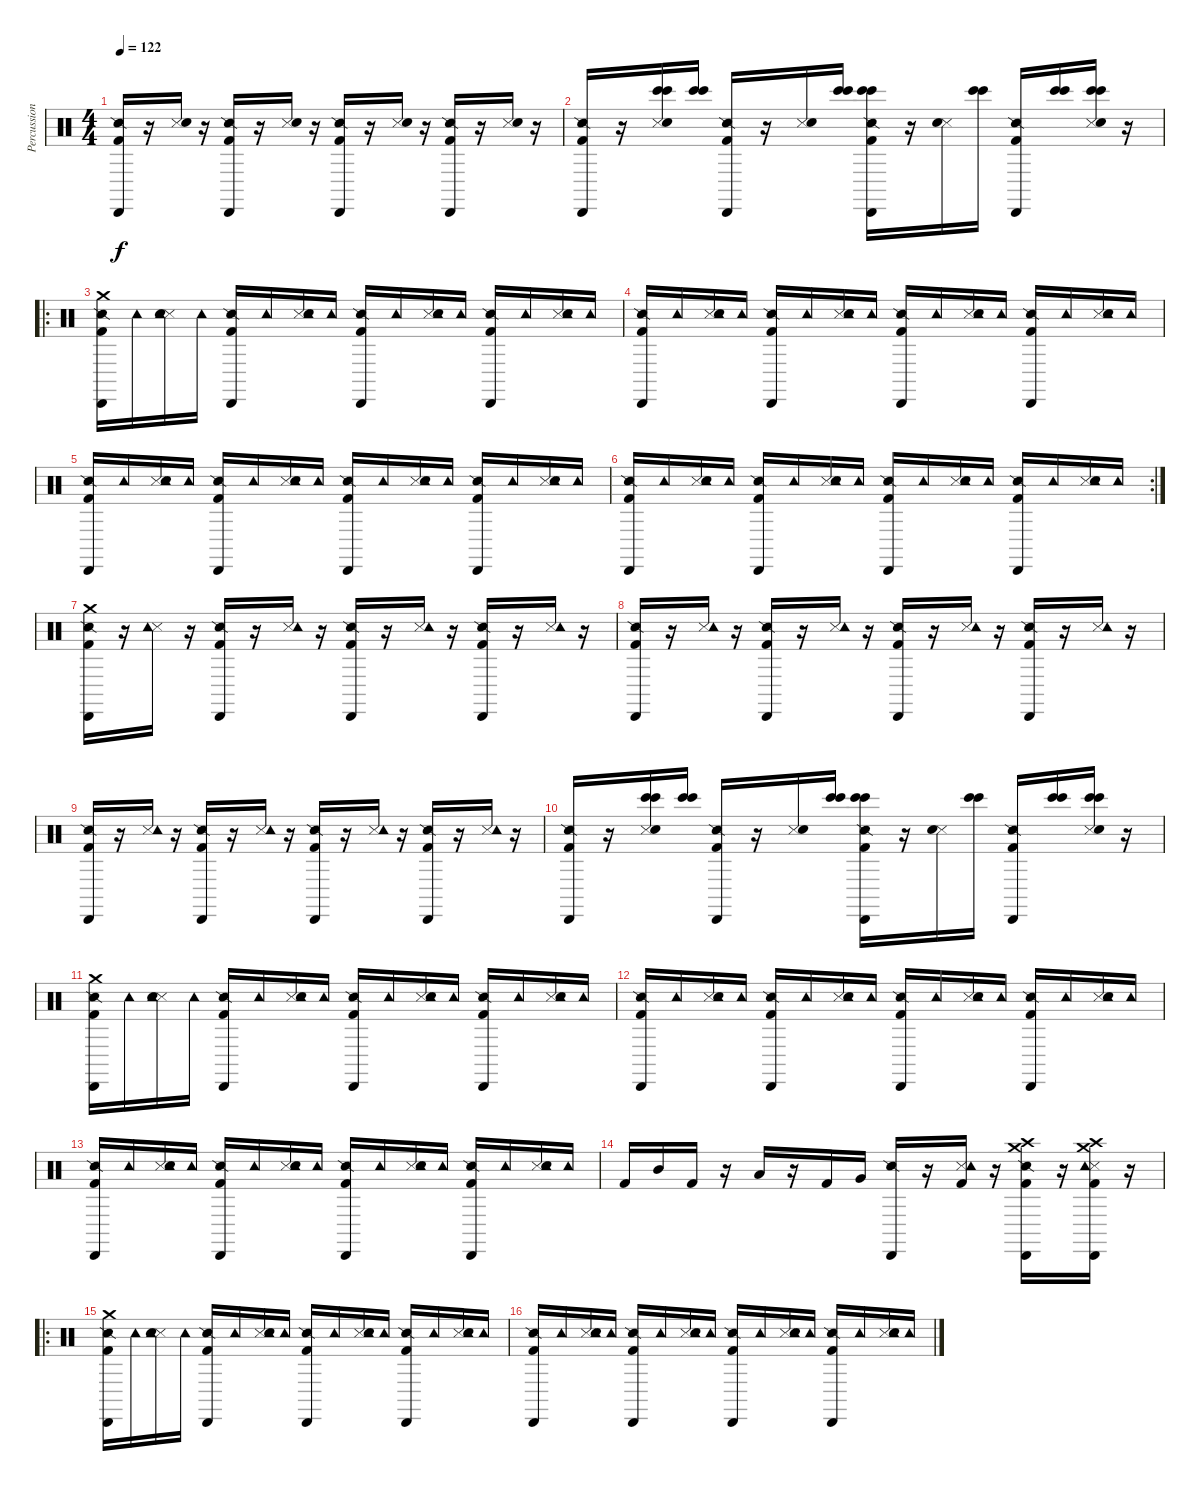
\track ("Percussion" "Percussion") {instrument percussion}
\staff {score}
\articulation defaults
\ts (4 4)
\tempo 122
\clef neutral
\ks c
("Snare (side stick) 2" "Kick (hit) 2" "Cabasa (hit)").16{dy f} r.16 ("Snare (side stick) 3" "Snare (hit) 2").16 r.16 ("Snare (side stick) 2" "Kick (hit) 2" "Cabasa (hit)").16 r.16 ("Snare (side stick) 3" "Snare (hit) 2").16 r.16 ("Snare (side stick) 2" "Kick (hit) 2" "Cabasa (hit)").16 r.16 ("Snare (side stick) 3" "Snare (hit) 2").16 r.16 ("Snare (side stick) 2" "Kick (hit) 2" "Cabasa (hit)").16 r.16 ("Snare (side stick) 3" "Snare (hit) 2").16 r.16 |
("Snare (side stick) 2" "Kick (hit) 2" "Cabasa (hit)").16 r.16 ("Snare (side stick) 3" "Bongo High (hit)" "Bongo High (hit)" "Snare (hit) 2").16 ("Bongo High (hit)" "Bongo High (hit)").16 ("Snare (side stick) 2" "Kick (hit) 2" "Cabasa (hit)").16 r.16 ("Snare (side stick) 3" "Snare (hit) 2").16 ("Bongo High (hit)" "Bongo High (hit)").16 ("Snare (side stick) 2" "Bongo High (hit)" "Bongo High (hit)" "Kick (hit) 2" "Cabasa (hit)").16 r.16 ("Snare (side stick) 3" "Snare (hit) 2").16 ("Bongo High (hit)" "Bongo High (hit)").16 ("Snare (side stick) 2" "Kick (hit) 2" "Cabasa (hit)").16 ("Bongo High (hit)" "Bongo High (hit)").16 ("Snare (side stick) 3" "Bongo High (hit)" "Bongo High (hit)" "Snare (hit) 2").16 r.16 |
\ro
("Snare (side stick) 2" "Crash medium (hit)" "Kick (hit) 2" "Cabasa (hit)").16 "Tambourine (hit)".16 ("Snare (side stick) 3" "Snare (hit) 2" "Tambourine (hit)").16 "Tambourine (hit)".16 ("Snare (side stick) 2" "Kick (hit) 2" "Cabasa (hit)").16 "Tambourine (hit)".16 ("Snare (side stick) 3" "Snare (hit) 2" "Tambourine (hit)").16 "Tambourine (hit)".16 ("Snare (side stick) 2" "Kick (hit) 2" "Cabasa (hit)").16 "Tambourine (hit)".16 ("Snare (side stick) 3" "Snare (hit) 2" "Tambourine (hit)").16 "Tambourine (hit)".16 ("Snare (side stick) 2" "Kick (hit) 2" "Cabasa (hit)").16 "Tambourine (hit)".16 ("Snare (side stick) 3" "Snare (hit) 2" "Tambourine (hit)").16 "Tambourine (hit)".16 |
("Snare (side stick) 2" "Kick (hit) 2" "Cabasa (hit)").16 "Tambourine (hit)".16 ("Snare (side stick) 3" "Snare (hit) 2" "Tambourine (hit)").16 "Tambourine (hit)".16 ("Snare (side stick) 2" "Kick (hit) 2" "Cabasa (hit)").16 "Tambourine (hit)".16 ("Snare (side stick) 3" "Snare (hit) 2" "Tambourine (hit)").16 "Tambourine (hit)".16 ("Snare (side stick) 2" "Kick (hit) 2" "Cabasa (hit)").16 "Tambourine (hit)".16 ("Snare (side stick) 3" "Snare (hit) 2" "Tambourine (hit)").16 "Tambourine (hit)".16 ("Snare (side stick) 2" "Kick (hit) 2" "Cabasa (hit)").16 "Tambourine (hit)".16 ("Snare (side stick) 3" "Snare (hit) 2" "Tambourine (hit)").16 "Tambourine (hit)".16 |
("Snare (side stick) 2" "Kick (hit) 2" "Cabasa (hit)").16 "Tambourine (hit)".16 ("Snare (side stick) 3" "Snare (hit) 2" "Tambourine (hit)").16 "Tambourine (hit)".16 ("Snare (side stick) 2" "Kick (hit) 2" "Cabasa (hit)").16 "Tambourine (hit)".16 ("Snare (side stick) 3" "Snare (hit) 2" "Tambourine (hit)").16 "Tambourine (hit)".16 ("Snare (side stick) 2" "Kick (hit) 2" "Cabasa (hit)").16 "Tambourine (hit)".16 ("Snare (side stick) 3" "Snare (hit) 2" "Tambourine (hit)").16 "Tambourine (hit)".16 ("Snare (side stick) 2" "Kick (hit) 2" "Cabasa (hit)").16 "Tambourine (hit)".16 ("Snare (side stick) 3" "Snare (hit) 2" "Tambourine (hit)").16 "Tambourine (hit)".16 |
\rc 2
("Snare (side stick) 2" "Kick (hit) 2" "Cabasa (hit)").16 "Tambourine (hit)".16 ("Snare (side stick) 3" "Snare (hit) 2" "Tambourine (hit)").16 "Tambourine (hit)".16 ("Snare (side stick) 2" "Kick (hit) 2" "Cabasa (hit)").16 "Tambourine (hit)".16 ("Snare (side stick) 3" "Snare (hit) 2" "Tambourine (hit)").16 "Tambourine (hit)".16 ("Snare (side stick) 2" "Kick (hit) 2" "Cabasa (hit)").16 "Tambourine (hit)".16 ("Snare (side stick) 3" "Snare (hit) 2" "Tambourine (hit)").16 "Tambourine (hit)".16 ("Snare (side stick) 2" "Kick (hit) 2" "Cabasa (hit)").16 "Tambourine (hit)".16 ("Snare (side stick) 3" "Snare (hit) 2" "Tambourine (hit)").16 "Tambourine (hit)".16 |
("Snare (side stick) 2" "Crash medium (hit)" "Kick (hit) 2" "Cabasa (hit)").16 r.16 ("Snare (side stick) 3" "Tambourine (hit)").16 r.16 ("Snare (side stick) 2" "Kick (hit) 2" "Cabasa (hit)").16 r.16 ("Snare (side stick) 3" "Tambourine (hit)").16 r.16 ("Snare (side stick) 2" "Kick (hit) 2" "Cabasa (hit)").16 r.16 ("Snare (side stick) 3" "Tambourine (hit)").16 r.16 ("Snare (side stick) 2" "Kick (hit) 2" "Cabasa (hit)").16 r.16 ("Snare (side stick) 3" "Tambourine (hit)").16 r.16 |
("Snare (side stick) 2" "Kick (hit) 2" "Cabasa (hit)").16 r.16 ("Snare (side stick) 3" "Tambourine (hit)").16 r.16 ("Snare (side stick) 2" "Kick (hit) 2" "Cabasa (hit)").16 r.16 ("Snare (side stick) 3" "Tambourine (hit)").16 r.16 ("Snare (side stick) 2" "Kick (hit) 2" "Cabasa (hit)").16 r.16 ("Snare (side stick) 3" "Tambourine (hit)").16 r.16 ("Snare (side stick) 2" "Kick (hit) 2" "Cabasa (hit)").16 r.16 ("Snare (side stick) 3" "Tambourine (hit)").16 r.16 |
("Snare (side stick) 2" "Kick (hit) 2" "Cabasa (hit)").16 r.16 ("Snare (side stick) 3" "Tambourine (hit)").16 r.16 ("Snare (side stick) 2" "Kick (hit) 2" "Cabasa (hit)").16 r.16 ("Snare (side stick) 3" "Tambourine (hit)").16 r.16 ("Snare (side stick) 2" "Kick (hit) 2" "Cabasa (hit)").16 r.16 ("Snare (side stick) 3" "Tambourine (hit)").16 r.16 ("Snare (side stick) 2" "Kick (hit) 2" "Cabasa (hit)").16 r.16 ("Snare (side stick) 3" "Tambourine (hit)").16 r.16 |
("Snare (side stick) 2" "Kick (hit) 2" "Cabasa (hit)").16 r.16 ("Snare (side stick) 3" "Bongo High (hit)" "Bongo High (hit)" "Snare (hit) 2").16 ("Bongo High (hit)" "Bongo High (hit)").16 ("Snare (side stick) 2" "Kick (hit) 2" "Cabasa (hit)").16 r.16 ("Snare (side stick) 3" "Snare (hit) 2").16 ("Bongo High (hit)" "Bongo High (hit)").16 ("Snare (side stick) 2" "Bongo High (hit)" "Bongo High (hit)" "Kick (hit) 2" "Cabasa (hit)").16 r.16 ("Snare (side stick) 3" "Snare (hit) 2").16 ("Bongo High (hit)" "Bongo High (hit)").16 ("Snare (side stick) 2" "Kick (hit) 2" "Cabasa (hit)").16 ("Bongo High (hit)" "Bongo High (hit)").16 ("Snare (side stick) 3" "Bongo High (hit)" "Bongo High (hit)" "Snare (hit) 2").16 r.16 |
("Snare (side stick) 2" "Crash medium (hit)" "Kick (hit) 2" "Cabasa (hit)").16 "Tambourine (hit)".16 ("Snare (side stick) 3" "Snare (hit) 2" "Tambourine (hit)").16 "Tambourine (hit)".16 ("Snare (side stick) 2" "Kick (hit) 2" "Cabasa (hit)").16 "Tambourine (hit)".16 ("Snare (side stick) 3" "Snare (hit) 2" "Tambourine (hit)").16 "Tambourine (hit)".16 ("Snare (side stick) 2" "Kick (hit) 2" "Cabasa (hit)").16 "Tambourine (hit)".16 ("Snare (side stick) 3" "Snare (hit) 2" "Tambourine (hit)").16 "Tambourine (hit)".16 ("Snare (side stick) 2" "Kick (hit) 2" "Cabasa (hit)").16 "Tambourine (hit)".16 ("Snare (side stick) 3" "Snare (hit) 2" "Tambourine (hit)").16 "Tambourine (hit)".16 |
("Snare (side stick) 2" "Kick (hit) 2" "Cabasa (hit)").16 "Tambourine (hit)".16 ("Snare (side stick) 3" "Snare (hit) 2" "Tambourine (hit)").16 "Tambourine (hit)".16 ("Snare (side stick) 2" "Kick (hit) 2" "Cabasa (hit)").16 "Tambourine (hit)".16 ("Snare (side stick) 3" "Snare (hit) 2" "Tambourine (hit)").16 "Tambourine (hit)".16 ("Snare (side stick) 2" "Kick (hit) 2" "Cabasa (hit)").16 "Tambourine (hit)".16 ("Snare (side stick) 3" "Snare (hit) 2" "Tambourine (hit)").16 "Tambourine (hit)".16 ("Snare (side stick) 2" "Kick (hit) 2" "Cabasa (hit)").16 "Tambourine (hit)".16 ("Snare (side stick) 3" "Snare (hit) 2" "Tambourine (hit)").16 "Tambourine (hit)".16 |
("Snare (side stick) 2" "Kick (hit) 2" "Cabasa (hit)").16 "Tambourine (hit)".16 ("Snare (side stick) 3" "Snare (hit) 2" "Tambourine (hit)").16 "Tambourine (hit)".16 ("Snare (side stick) 2" "Kick (hit) 2" "Cabasa (hit)").16 "Tambourine (hit)".16 ("Snare (side stick) 3" "Snare (hit) 2" "Tambourine (hit)").16 "Tambourine (hit)".16 ("Snare (side stick) 2" "Kick (hit) 2" "Cabasa (hit)").16 "Tambourine (hit)".16 ("Snare (side stick) 3" "Snare (hit) 2" "Tambourine (hit)").16 "Tambourine (hit)".16 ("Snare (side stick) 2" "Kick (hit) 2" "Cabasa (hit)").16 "Tambourine (hit)".16 ("Snare (side stick) 3" "Snare (hit) 2" "Tambourine (hit)").16 "Tambourine (hit)".16 |
"Kick (hit) 2".16 "Mid Tom (hit)".16 "Kick (hit) 2".16 r.16 "Low Tom (hit)".16 r.16 "Kick (hit) 2".16 "Very Low Tom (hit)".16 ("Snare (side stick) 2" "Cabasa (hit)").16 r.16 ("Snare (side stick) 3" "Tambourine (hit)" "Kick (hit) 2").16 r.16 ("Snare (side stick) 2" "Crash medium (hit)" "Crash high (hit)" "Kick (hit) 2" "Cabasa (hit)").16 r.16 ("Snare (side stick) 3" "Crash medium (hit)" "Crash high (hit)" "Kick (hit) 2" "Tambourine (hit)" "Cabasa (hit)").16 r.16 |
\ro
("Snare (side stick) 2" "Crash medium (hit)" "Kick (hit) 2" "Cabasa (hit)").16 "Tambourine (hit)".16 ("Snare (side stick) 3" "Snare (hit) 2" "Tambourine (hit)").16 "Tambourine (hit)".16 ("Snare (side stick) 2" "Kick (hit) 2" "Cabasa (hit)").16 "Tambourine (hit)".16 ("Snare (side stick) 3" "Snare (hit) 2" "Tambourine (hit)").16 "Tambourine (hit)".16 ("Snare (side stick) 2" "Kick (hit) 2" "Cabasa (hit)").16 "Tambourine (hit)".16 ("Snare (side stick) 3" "Snare (hit) 2" "Tambourine (hit)").16 "Tambourine (hit)".16 ("Snare (side stick) 2" "Kick (hit) 2" "Cabasa (hit)").16 "Tambourine (hit)".16 ("Snare (side stick) 3" "Snare (hit) 2" "Tambourine (hit)").16 "Tambourine (hit)".16 |
("Snare (side stick) 2" "Kick (hit) 2" "Cabasa (hit)").16 "Tambourine (hit)".16 ("Snare (side stick) 3" "Snare (hit) 2" "Tambourine (hit)").16 "Tambourine (hit)".16 ("Snare (side stick) 2" "Kick (hit) 2" "Cabasa (hit)").16 "Tambourine (hit)".16 ("Snare (side stick) 3" "Snare (hit) 2" "Tambourine (hit)").16 "Tambourine (hit)".16 ("Snare (side stick) 2" "Kick (hit) 2" "Cabasa (hit)").16 "Tambourine (hit)".16 ("Snare (side stick) 3" "Snare (hit) 2" "Tambourine (hit)").16 "Tambourine (hit)".16 ("Snare (side stick) 2" "Kick (hit) 2" "Cabasa (hit)").16 "Tambourine (hit)".16 ("Snare (side stick) 3" "Snare (hit) 2" "Tambourine (hit)").16 "Tambourine (hit)".16
